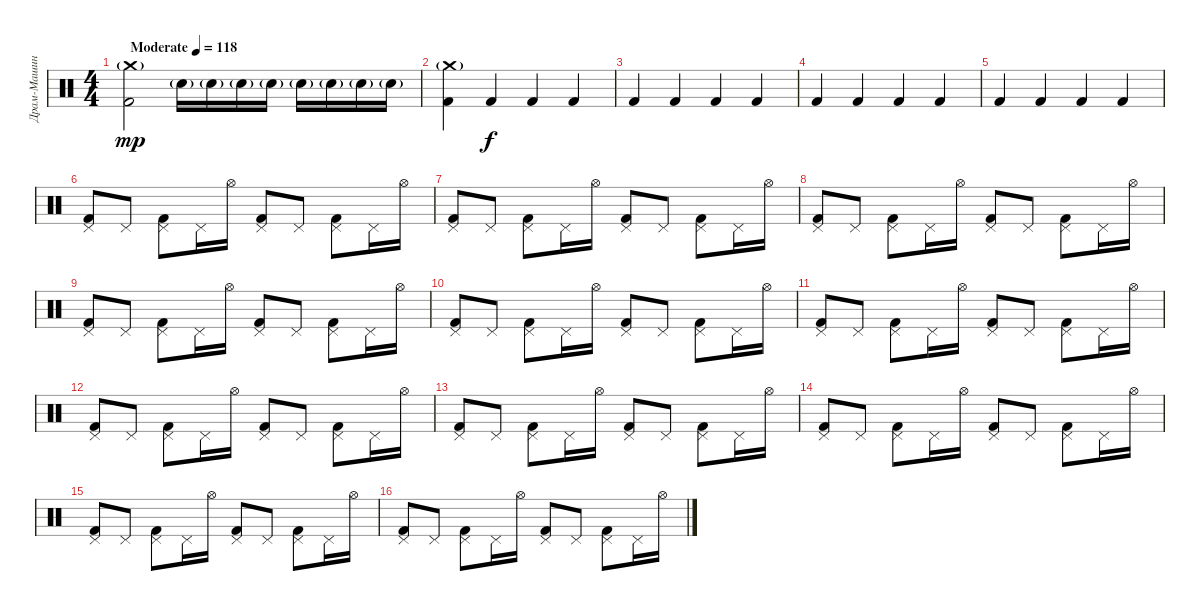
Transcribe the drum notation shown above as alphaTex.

\track ("Драм-Машина" "Драм-Машин") {instrument percussion}
\staff {score}
\articulation defaults
\ts (4 4)
\tempo (118 "Moderate")
\clef neutral
\ks c
("Crash medium (hit)"{g} "Kick (hit) 2").2{dy mp} "Electric Snare (hit)"{g}.16 "Electric Snare (hit)"{g}.16 "Electric Snare (hit)"{g}.16 "Electric Snare (hit)"{g}.16 "Electric Snare (hit)"{g}.16 "Electric Snare (hit)"{g}.16 "Electric Snare (hit)"{g}.16 "Electric Snare (hit)"{g}.16 |
("Crash medium (hit)"{g} "Kick (hit) 2").4 "Kick (hit) 2".4{dy f} "Kick (hit) 2".4 "Kick (hit) 2".4 |
"Kick (hit) 2".4 "Kick (hit) 2".4 "Kick (hit) 2".4 "Kick (hit) 2".4 |
"Kick (hit) 2".4 "Kick (hit) 2".4 "Kick (hit) 2".4 "Kick (hit) 2".4 |
"Kick (hit) 2".4 "Kick (hit) 2".4 "Kick (hit) 2".4 "Kick (hit) 2".4 |
("Pedal Hi-Hat (hit)" "Kick (hit) 2").8 "Pedal Hi-Hat (hit)".8 ("Pedal Hi-Hat (hit)" "Kick (hit) 2").8 "Pedal Hi-Hat (hit)".16 "Hi-Hat (open)".16 ("Pedal Hi-Hat (hit)" "Kick (hit) 2").8 "Pedal Hi-Hat (hit)".8 ("Pedal Hi-Hat (hit)" "Kick (hit) 2").8 "Pedal Hi-Hat (hit)".16 "Hi-Hat (open)".16 |
("Pedal Hi-Hat (hit)" "Kick (hit) 2").8 "Pedal Hi-Hat (hit)".8 ("Pedal Hi-Hat (hit)" "Kick (hit) 2").8 "Pedal Hi-Hat (hit)".16 "Hi-Hat (open)".16 ("Pedal Hi-Hat (hit)" "Kick (hit) 2").8 "Pedal Hi-Hat (hit)".8 ("Pedal Hi-Hat (hit)" "Kick (hit) 2").8 "Pedal Hi-Hat (hit)".16 "Hi-Hat (open)".16 |
("Pedal Hi-Hat (hit)" "Kick (hit) 2").8 "Pedal Hi-Hat (hit)".8 ("Pedal Hi-Hat (hit)" "Kick (hit) 2").8 "Pedal Hi-Hat (hit)".16 "Hi-Hat (open)".16 ("Pedal Hi-Hat (hit)" "Kick (hit) 2").8 "Pedal Hi-Hat (hit)".8 ("Pedal Hi-Hat (hit)" "Kick (hit) 2").8 "Pedal Hi-Hat (hit)".16 "Hi-Hat (open)".16 |
("Pedal Hi-Hat (hit)" "Kick (hit) 2").8 "Pedal Hi-Hat (hit)".8 ("Pedal Hi-Hat (hit)" "Kick (hit) 2").8 "Pedal Hi-Hat (hit)".16 "Hi-Hat (open)".16 ("Pedal Hi-Hat (hit)" "Kick (hit) 2").8 "Pedal Hi-Hat (hit)".8 ("Pedal Hi-Hat (hit)" "Kick (hit) 2").8 "Pedal Hi-Hat (hit)".16 "Hi-Hat (open)".16 |
("Pedal Hi-Hat (hit)" "Kick (hit) 2").8 "Pedal Hi-Hat (hit)".8 ("Pedal Hi-Hat (hit)" "Kick (hit) 2").8 "Pedal Hi-Hat (hit)".16 "Hi-Hat (open)".16 ("Pedal Hi-Hat (hit)" "Kick (hit) 2").8 "Pedal Hi-Hat (hit)".8 ("Pedal Hi-Hat (hit)" "Kick (hit) 2").8 "Pedal Hi-Hat (hit)".16 "Hi-Hat (open)".16 |
("Pedal Hi-Hat (hit)" "Kick (hit) 2").8 "Pedal Hi-Hat (hit)".8 ("Pedal Hi-Hat (hit)" "Kick (hit) 2").8 "Pedal Hi-Hat (hit)".16 "Hi-Hat (open)".16 ("Pedal Hi-Hat (hit)" "Kick (hit) 2").8 "Pedal Hi-Hat (hit)".8 ("Pedal Hi-Hat (hit)" "Kick (hit) 2").8 "Pedal Hi-Hat (hit)".16 "Hi-Hat (open)".16 |
("Pedal Hi-Hat (hit)" "Kick (hit) 2").8 "Pedal Hi-Hat (hit)".8 ("Pedal Hi-Hat (hit)" "Kick (hit) 2").8 "Pedal Hi-Hat (hit)".16 "Hi-Hat (open)".16 ("Pedal Hi-Hat (hit)" "Kick (hit) 2").8 "Pedal Hi-Hat (hit)".8 ("Pedal Hi-Hat (hit)" "Kick (hit) 2").8 "Pedal Hi-Hat (hit)".16 "Hi-Hat (open)".16 |
("Pedal Hi-Hat (hit)" "Kick (hit) 2").8 "Pedal Hi-Hat (hit)".8 ("Pedal Hi-Hat (hit)" "Kick (hit) 2").8 "Pedal Hi-Hat (hit)".16 "Hi-Hat (open)".16 ("Pedal Hi-Hat (hit)" "Kick (hit) 2").8 "Pedal Hi-Hat (hit)".8 ("Pedal Hi-Hat (hit)" "Kick (hit) 2").8 "Pedal Hi-Hat (hit)".16 "Hi-Hat (open)".16 |
("Pedal Hi-Hat (hit)" "Kick (hit) 2").8 "Pedal Hi-Hat (hit)".8 ("Pedal Hi-Hat (hit)" "Kick (hit) 2").8 "Pedal Hi-Hat (hit)".16 "Hi-Hat (open)".16 ("Pedal Hi-Hat (hit)" "Kick (hit) 2").8 "Pedal Hi-Hat (hit)".8 ("Pedal Hi-Hat (hit)" "Kick (hit) 2").8 "Pedal Hi-Hat (hit)".16 "Hi-Hat (open)".16 |
("Pedal Hi-Hat (hit)" "Kick (hit) 2").8 "Pedal Hi-Hat (hit)".8 ("Pedal Hi-Hat (hit)" "Kick (hit) 2").8 "Pedal Hi-Hat (hit)".16 "Hi-Hat (open)".16 ("Pedal Hi-Hat (hit)" "Kick (hit) 2").8 "Pedal Hi-Hat (hit)".8 ("Pedal Hi-Hat (hit)" "Kick (hit) 2").8 "Pedal Hi-Hat (hit)".16 "Hi-Hat (open)".16 |
("Pedal Hi-Hat (hit)" "Kick (hit) 2").8 "Pedal Hi-Hat (hit)".8 ("Pedal Hi-Hat (hit)" "Kick (hit) 2").8 "Pedal Hi-Hat (hit)".16 "Hi-Hat (open)".16 ("Pedal Hi-Hat (hit)" "Kick (hit) 2").8 "Pedal Hi-Hat (hit)".8 ("Pedal Hi-Hat (hit)" "Kick (hit) 2").8 "Pedal Hi-Hat (hit)".16 "Hi-Hat (open)".16
